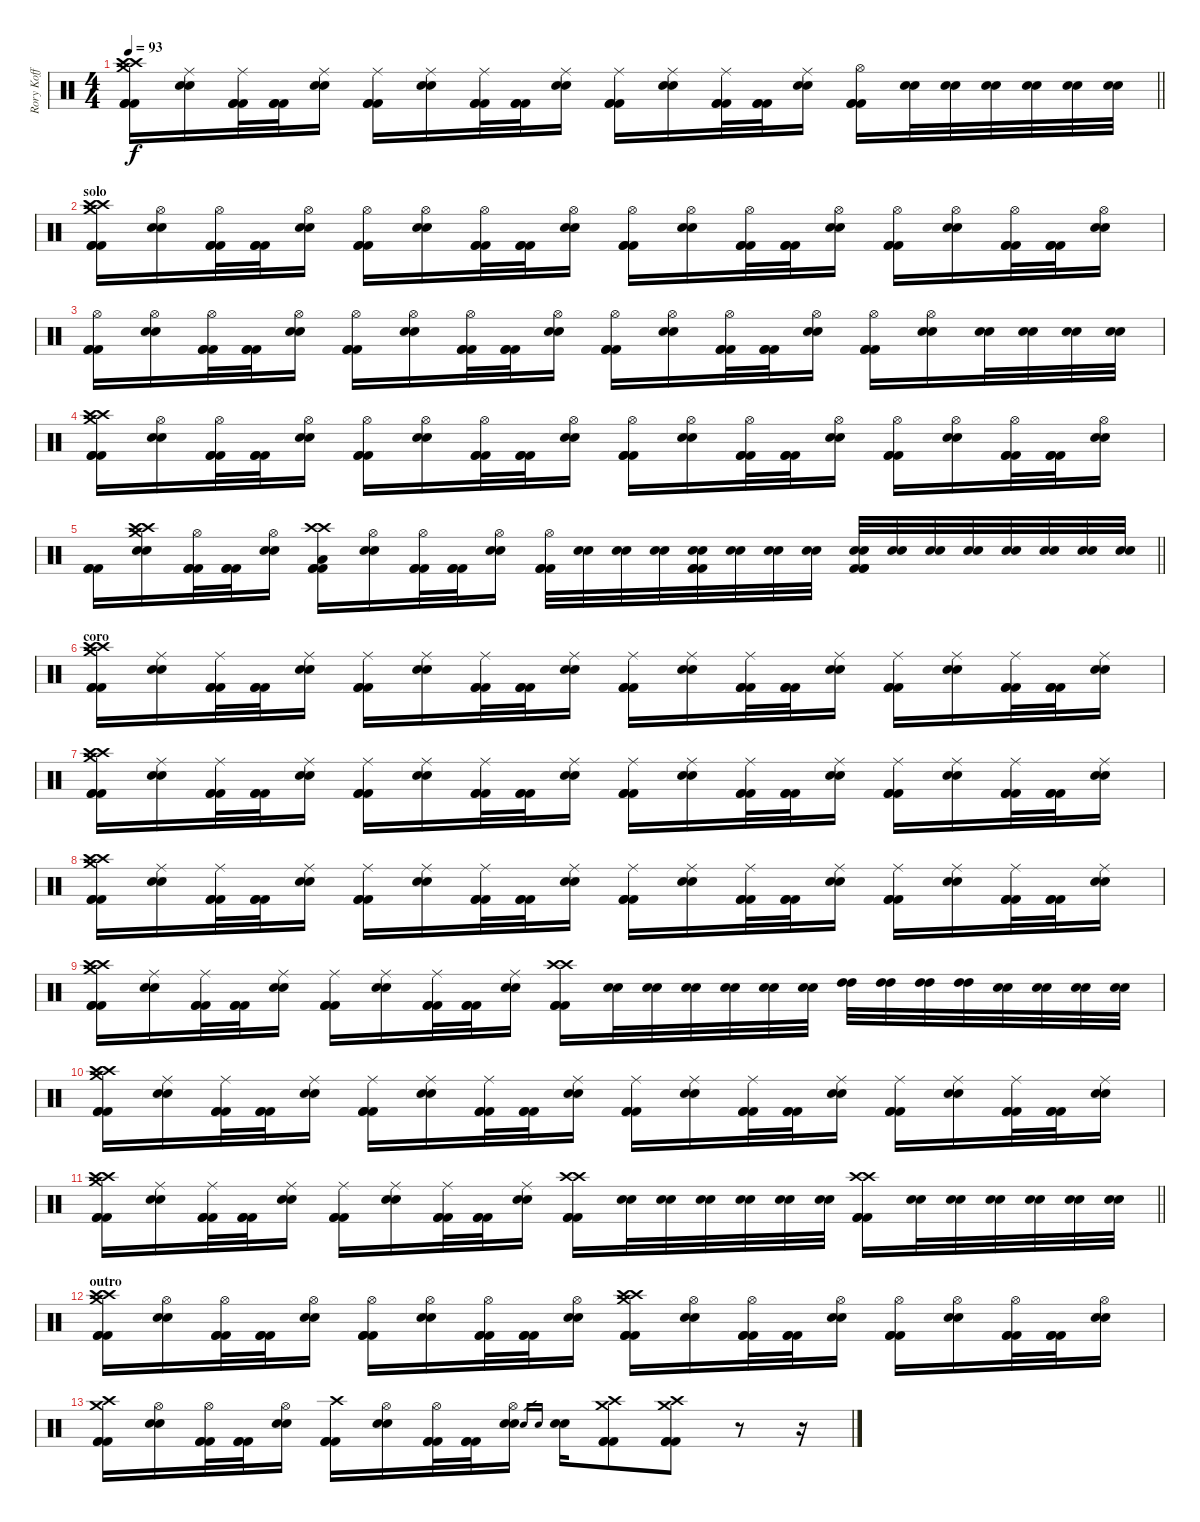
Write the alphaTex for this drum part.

\track ("Rory Koff" "Rory Koff") {instrument percussion}
\staff {score}
\articulation defaults
\ts (4 4)
\tempo 93
\clef neutral
\barLineRight lightlight
\ks c
("Crash high (hit)" "Crash medium (hit)" "Crash high (hit)" "Kick (hit) 2" "Kick (hit) 2" "Kick (hit) 2").16{dy f} ("Ride (middle)" "Electric Snare (hit)" "Electric Snare (hit)").16 ("Ride (middle)" "Kick (hit) 2" "Kick (hit) 2" "Kick (hit) 2").32 ("Kick (hit) 2" "Kick (hit) 2" "Kick (hit) 2").32 ("Ride (middle)" "Electric Snare (hit)" "Electric Snare (hit)").16 ("Ride (middle)" "Kick (hit) 2" "Kick (hit) 2" "Kick (hit) 2").16 ("Ride (middle)" "Electric Snare (hit)" "Electric Snare (hit)").16 ("Ride (middle)" "Kick (hit) 2" "Kick (hit) 2" "Kick (hit) 2").32 ("Kick (hit) 2" "Kick (hit) 2" "Kick (hit) 2").32 ("Ride (middle)" "Electric Snare (hit)" "Electric Snare (hit)").16 ("Ride (middle)" "Kick (hit) 2" "Kick (hit) 2" "Kick (hit) 2").16 ("Ride (middle)" "Electric Snare (hit)" "Electric Snare (hit)").16 ("Ride (middle)" "Kick (hit) 2" "Kick (hit) 2" "Kick (hit) 2").32 ("Kick (hit) 2" "Kick (hit) 2" "Kick (hit) 2").32 ("Ride (middle)" "Electric Snare (hit)" "Electric Snare (hit)").16 ("Hi-Hat (open)" "Kick (hit) 2" "Kick (hit) 2" "Kick (hit) 2").16 ("Electric Snare (hit)" "Electric Snare (hit)").32 ("Electric Snare (hit)" "Electric Snare (hit)").32 ("Electric Snare (hit)" "Electric Snare (hit)").32 ("Electric Snare (hit)" "Electric Snare (hit)").32 ("Electric Snare (hit)" "Electric Snare (hit)").32 ("Electric Snare (hit)" "Electric Snare (hit)").32 |
\section ("" "solo")
("Crash high (hit)" "Crash medium (hit)" "Crash high (hit)" "Kick (hit) 2" "Kick (hit) 2" "Kick (hit) 2").16 ("Hi-Hat (open)" "Electric Snare (hit)" "Electric Snare (hit)").16 ("Hi-Hat (open)" "Kick (hit) 2" "Kick (hit) 2" "Kick (hit) 2").32 ("Kick (hit) 2" "Kick (hit) 2" "Kick (hit) 2").32 ("Hi-Hat (open)" "Electric Snare (hit)" "Electric Snare (hit)").16 ("Hi-Hat (open)" "Kick (hit) 2" "Kick (hit) 2" "Kick (hit) 2").16 ("Hi-Hat (open)" "Electric Snare (hit)" "Electric Snare (hit)").16 ("Hi-Hat (open)" "Kick (hit) 2" "Kick (hit) 2" "Kick (hit) 2").32 ("Kick (hit) 2" "Kick (hit) 2" "Kick (hit) 2").32 ("Hi-Hat (open)" "Electric Snare (hit)" "Electric Snare (hit)").16 ("Hi-Hat (open)" "Kick (hit) 2" "Kick (hit) 2" "Kick (hit) 2").16 ("Hi-Hat (open)" "Electric Snare (hit)" "Electric Snare (hit)").16 ("Hi-Hat (open)" "Kick (hit) 2" "Kick (hit) 2" "Kick (hit) 2").32 ("Kick (hit) 2" "Kick (hit) 2" "Kick (hit) 2").32 ("Hi-Hat (open)" "Electric Snare (hit)" "Electric Snare (hit)").16 ("Hi-Hat (open)" "Kick (hit) 2" "Kick (hit) 2" "Kick (hit) 2").16 ("Hi-Hat (open)" "Electric Snare (hit)" "Electric Snare (hit)").16 ("Hi-Hat (open)" "Kick (hit) 2" "Kick (hit) 2" "Kick (hit) 2").32 ("Kick (hit) 2" "Kick (hit) 2" "Kick (hit) 2").32 ("Hi-Hat (open)" "Electric Snare (hit)" "Electric Snare (hit)").16 |
("Hi-Hat (open)" "Kick (hit) 2" "Kick (hit) 2" "Kick (hit) 2").16 ("Hi-Hat (open)" "Electric Snare (hit)" "Electric Snare (hit)").16 ("Hi-Hat (open)" "Kick (hit) 2" "Kick (hit) 2" "Kick (hit) 2").32 ("Kick (hit) 2" "Kick (hit) 2" "Kick (hit) 2").32 ("Hi-Hat (open)" "Electric Snare (hit)" "Electric Snare (hit)").16 ("Hi-Hat (open)" "Kick (hit) 2" "Kick (hit) 2" "Kick (hit) 2").16 ("Hi-Hat (open)" "Electric Snare (hit)" "Electric Snare (hit)").16 ("Hi-Hat (open)" "Kick (hit) 2" "Kick (hit) 2" "Kick (hit) 2").32 ("Kick (hit) 2" "Kick (hit) 2" "Kick (hit) 2").32 ("Hi-Hat (open)" "Electric Snare (hit)" "Electric Snare (hit)").16 ("Hi-Hat (open)" "Kick (hit) 2" "Kick (hit) 2" "Kick (hit) 2").16 ("Hi-Hat (open)" "Electric Snare (hit)" "Electric Snare (hit)").16 ("Hi-Hat (open)" "Kick (hit) 2" "Kick (hit) 2" "Kick (hit) 2").32 ("Kick (hit) 2" "Kick (hit) 2" "Kick (hit) 2").32 ("Hi-Hat (open)" "Electric Snare (hit)" "Electric Snare (hit)").16 ("Hi-Hat (open)" "Kick (hit) 2" "Kick (hit) 2" "Kick (hit) 2").16 ("Hi-Hat (open)" "Electric Snare (hit)" "Electric Snare (hit)").16 ("Electric Snare (hit)" "Electric Snare (hit)").32 ("Electric Snare (hit)" "Electric Snare (hit)").32 ("Electric Snare (hit)" "Electric Snare (hit)").32 ("Electric Snare (hit)" "Electric Snare (hit)").32 |
("Crash high (hit)" "Crash medium (hit)" "Crash high (hit)" "Kick (hit) 2" "Kick (hit) 2" "Kick (hit) 2").16 ("Hi-Hat (open)" "Electric Snare (hit)" "Electric Snare (hit)").16 ("Hi-Hat (open)" "Kick (hit) 2" "Kick (hit) 2" "Kick (hit) 2").32 ("Kick (hit) 2" "Kick (hit) 2" "Kick (hit) 2").32 ("Hi-Hat (open)" "Electric Snare (hit)" "Electric Snare (hit)").16 ("Hi-Hat (open)" "Kick (hit) 2" "Kick (hit) 2" "Kick (hit) 2").16 ("Hi-Hat (open)" "Electric Snare (hit)" "Electric Snare (hit)").16 ("Hi-Hat (open)" "Kick (hit) 2" "Kick (hit) 2" "Kick (hit) 2").32 ("Kick (hit) 2" "Kick (hit) 2" "Kick (hit) 2").32 ("Hi-Hat (open)" "Electric Snare (hit)" "Electric Snare (hit)").16 ("Hi-Hat (open)" "Kick (hit) 2" "Kick (hit) 2" "Kick (hit) 2").16 ("Hi-Hat (open)" "Electric Snare (hit)" "Electric Snare (hit)").16 ("Hi-Hat (open)" "Kick (hit) 2" "Kick (hit) 2" "Kick (hit) 2").32 ("Kick (hit) 2" "Kick (hit) 2" "Kick (hit) 2").32 ("Hi-Hat (open)" "Electric Snare (hit)" "Electric Snare (hit)").16 ("Hi-Hat (open)" "Kick (hit) 2" "Kick (hit) 2" "Kick (hit) 2").16 ("Hi-Hat (open)" "Electric Snare (hit)" "Electric Snare (hit)").16 ("Hi-Hat (open)" "Kick (hit) 2" "Kick (hit) 2" "Kick (hit) 2").32 ("Kick (hit) 2" "Kick (hit) 2" "Kick (hit) 2").32 ("Hi-Hat (open)" "Electric Snare (hit)" "Electric Snare (hit)").16 |
\barLineRight lightlight
("Kick (hit) 2" "Kick (hit) 2" "Kick (hit) 2").16 ("Crash medium (hit)" "Crash high (hit)" "Crash high (hit)" "Electric Snare (hit)" "Electric Snare (hit)").16 ("Hi-Hat (open)" "Kick (hit) 2" "Kick (hit) 2" "Kick (hit) 2").32 ("Kick (hit) 2" "Kick (hit) 2" "Kick (hit) 2").32 ("Hi-Hat (open)" "Electric Snare (hit)" "Electric Snare (hit)").16 ("Crash high (hit)" "Low Tom (hit)" "Crash high (hit)" "Kick (hit) 2" "Kick (hit) 2" "Kick (hit) 2").16 ("Hi-Hat (open)" "Electric Snare (hit)" "Electric Snare (hit)").16 ("Hi-Hat (open)" "Kick (hit) 2" "Kick (hit) 2" "Kick (hit) 2").32 ("Kick (hit) 2" "Kick (hit) 2" "Kick (hit) 2").32 ("Hi-Hat (open)" "Electric Snare (hit)" "Electric Snare (hit)").16 ("Hi-Hat (open)" "Kick (hit) 2" "Kick (hit) 2" "Kick (hit) 2").32 ("Electric Snare (hit)" "Electric Snare (hit)").32 ("Electric Snare (hit)" "Electric Snare (hit)").32 ("Electric Snare (hit)" "Electric Snare (hit)").32 ("Electric Snare (hit)" "Electric Snare (hit)" "Kick (hit) 2" "Kick (hit) 2" "Kick (hit) 2").32 ("Electric Snare (hit)" "Electric Snare (hit)").32 ("Electric Snare (hit)" "Electric Snare (hit)").32 ("Electric Snare (hit)" "Electric Snare (hit)").32 ("Electric Snare (hit)" "Electric Snare (hit)" "Kick (hit) 2" "Kick (hit) 2" "Kick (hit) 2").32 ("Electric Snare (hit)" "Electric Snare (hit)").32 ("Electric Snare (hit)" "Electric Snare (hit)").32 ("Electric Snare (hit)" "Electric Snare (hit)").32 ("Electric Snare (hit)" "Electric Snare (hit)").32 ("Electric Snare (hit)" "Electric Snare (hit)").32 ("Electric Snare (hit)" "Electric Snare (hit)").32 ("Electric Snare (hit)" "Electric Snare (hit)").32 |
\section ("" "coro")
("Crash high (hit)" "Crash medium (hit)" "Crash high (hit)" "Kick (hit) 2" "Kick (hit) 2" "Kick (hit) 2").16 ("Ride (middle)" "Electric Snare (hit)" "Electric Snare (hit)").16 ("Ride (middle)" "Kick (hit) 2" "Kick (hit) 2" "Kick (hit) 2").32 ("Kick (hit) 2" "Kick (hit) 2" "Kick (hit) 2").32 ("Ride (middle)" "Electric Snare (hit)" "Electric Snare (hit)").16 ("Ride (middle)" "Kick (hit) 2" "Kick (hit) 2" "Kick (hit) 2").16 ("Ride (middle)" "Electric Snare (hit)" "Electric Snare (hit)").16 ("Ride (middle)" "Kick (hit) 2" "Kick (hit) 2" "Kick (hit) 2").32 ("Kick (hit) 2" "Kick (hit) 2" "Kick (hit) 2").32 ("Ride (middle)" "Electric Snare (hit)" "Electric Snare (hit)").16 ("Ride (middle)" "Kick (hit) 2" "Kick (hit) 2" "Kick (hit) 2").16 ("Ride (middle)" "Electric Snare (hit)" "Electric Snare (hit)").16 ("Ride (middle)" "Kick (hit) 2" "Kick (hit) 2" "Kick (hit) 2").32 ("Kick (hit) 2" "Kick (hit) 2" "Kick (hit) 2").32 ("Ride (middle)" "Electric Snare (hit)" "Electric Snare (hit)").16 ("Ride (middle)" "Kick (hit) 2" "Kick (hit) 2" "Kick (hit) 2").16 ("Ride (middle)" "Electric Snare (hit)" "Electric Snare (hit)").16 ("Ride (middle)" "Kick (hit) 2" "Kick (hit) 2" "Kick (hit) 2").32 ("Kick (hit) 2" "Kick (hit) 2" "Kick (hit) 2").32 ("Ride (middle)" "Electric Snare (hit)" "Electric Snare (hit)").16 |
("Crash high (hit)" "Crash medium (hit)" "Crash high (hit)" "Kick (hit) 2" "Kick (hit) 2" "Kick (hit) 2").16 ("Ride (middle)" "Electric Snare (hit)" "Electric Snare (hit)").16 ("Ride (middle)" "Kick (hit) 2" "Kick (hit) 2" "Kick (hit) 2").32 ("Kick (hit) 2" "Kick (hit) 2" "Kick (hit) 2").32 ("Ride (middle)" "Electric Snare (hit)" "Electric Snare (hit)").16 ("Ride (middle)" "Kick (hit) 2" "Kick (hit) 2" "Kick (hit) 2").16 ("Ride (middle)" "Electric Snare (hit)" "Electric Snare (hit)").16 ("Ride (middle)" "Kick (hit) 2" "Kick (hit) 2" "Kick (hit) 2").32 ("Kick (hit) 2" "Kick (hit) 2" "Kick (hit) 2").32 ("Ride (middle)" "Electric Snare (hit)" "Electric Snare (hit)").16 ("Ride (middle)" "Kick (hit) 2" "Kick (hit) 2" "Kick (hit) 2").16 ("Ride (middle)" "Electric Snare (hit)" "Electric Snare (hit)").16 ("Ride (middle)" "Kick (hit) 2" "Kick (hit) 2" "Kick (hit) 2").32 ("Kick (hit) 2" "Kick (hit) 2" "Kick (hit) 2").32 ("Ride (middle)" "Electric Snare (hit)" "Electric Snare (hit)").16 ("Ride (middle)" "Kick (hit) 2" "Kick (hit) 2" "Kick (hit) 2").16 ("Ride (middle)" "Electric Snare (hit)" "Electric Snare (hit)").16 ("Ride (middle)" "Kick (hit) 2" "Kick (hit) 2" "Kick (hit) 2").32 ("Kick (hit) 2" "Kick (hit) 2" "Kick (hit) 2").32 ("Ride (middle)" "Electric Snare (hit)" "Electric Snare (hit)").16 |
("Crash high (hit)" "Crash medium (hit)" "Crash high (hit)" "Kick (hit) 2" "Kick (hit) 2" "Kick (hit) 2").16 ("Ride (middle)" "Electric Snare (hit)" "Electric Snare (hit)").16 ("Ride (middle)" "Kick (hit) 2" "Kick (hit) 2" "Kick (hit) 2").32 ("Kick (hit) 2" "Kick (hit) 2" "Kick (hit) 2").32 ("Ride (middle)" "Electric Snare (hit)" "Electric Snare (hit)").16 ("Ride (middle)" "Kick (hit) 2" "Kick (hit) 2" "Kick (hit) 2").16 ("Ride (middle)" "Electric Snare (hit)" "Electric Snare (hit)").16 ("Ride (middle)" "Kick (hit) 2" "Kick (hit) 2" "Kick (hit) 2").32 ("Kick (hit) 2" "Kick (hit) 2" "Kick (hit) 2").32 ("Ride (middle)" "Electric Snare (hit)" "Electric Snare (hit)").16 ("Ride (middle)" "Kick (hit) 2" "Kick (hit) 2" "Kick (hit) 2").16 ("Ride (middle)" "Electric Snare (hit)" "Electric Snare (hit)").16 ("Ride (middle)" "Kick (hit) 2" "Kick (hit) 2" "Kick (hit) 2").32 ("Kick (hit) 2" "Kick (hit) 2" "Kick (hit) 2").32 ("Ride (middle)" "Electric Snare (hit)" "Electric Snare (hit)").16 ("Ride (middle)" "Kick (hit) 2" "Kick (hit) 2" "Kick (hit) 2").16 ("Ride (middle)" "Electric Snare (hit)" "Electric Snare (hit)").16 ("Ride (middle)" "Kick (hit) 2" "Kick (hit) 2" "Kick (hit) 2").32 ("Kick (hit) 2" "Kick (hit) 2" "Kick (hit) 2").32 ("Ride (middle)" "Electric Snare (hit)" "Electric Snare (hit)").16 |
("Crash high (hit)" "Crash medium (hit)" "Crash high (hit)" "Kick (hit) 2" "Kick (hit) 2" "Kick (hit) 2").16 ("Ride (middle)" "Electric Snare (hit)" "Electric Snare (hit)").16 ("Ride (middle)" "Kick (hit) 2" "Kick (hit) 2" "Kick (hit) 2").32 ("Kick (hit) 2" "Kick (hit) 2" "Kick (hit) 2").32 ("Ride (middle)" "Electric Snare (hit)" "Electric Snare (hit)").16 ("Ride (middle)" "Kick (hit) 2" "Kick (hit) 2" "Kick (hit) 2").16 ("Ride (middle)" "Electric Snare (hit)" "Electric Snare (hit)").16 ("Ride (middle)" "Kick (hit) 2" "Kick (hit) 2" "Kick (hit) 2").32 ("Kick (hit) 2" "Kick (hit) 2" "Kick (hit) 2").32 ("Ride (middle)" "Electric Snare (hit)" "Electric Snare (hit)").16 ("Crash high (hit)" "Crash high (hit)" "Kick (hit) 2" "Kick (hit) 2" "Kick (hit) 2").16 ("Electric Snare (hit)" "Electric Snare (hit)").32 ("Electric Snare (hit)" "Electric Snare (hit)").32 ("Electric Snare (hit)" "Electric Snare (hit)").32 ("Electric Snare (hit)" "Electric Snare (hit)").32 ("Electric Snare (hit)" "Electric Snare (hit)").32 ("Electric Snare (hit)" "Electric Snare (hit)").32 ("High Tom (hit)" "High Tom (hit)").32 ("High Tom (hit)" "High Tom (hit)").32 ("High Tom (hit)" "High Tom (hit)").32 ("High Tom (hit)" "High Tom (hit)").32 ("Electric Snare (hit)" "Electric Snare (hit)").32 ("Electric Snare (hit)" "Electric Snare (hit)").32 ("Electric Snare (hit)" "Electric Snare (hit)").32 ("Electric Snare (hit)" "Electric Snare (hit)").32 |
("Crash high (hit)" "Crash medium (hit)" "Crash high (hit)" "Kick (hit) 2" "Kick (hit) 2" "Kick (hit) 2").16 ("Ride (middle)" "Electric Snare (hit)" "Electric Snare (hit)").16 ("Ride (middle)" "Kick (hit) 2" "Kick (hit) 2" "Kick (hit) 2").32 ("Kick (hit) 2" "Kick (hit) 2" "Kick (hit) 2").32 ("Ride (middle)" "Electric Snare (hit)" "Electric Snare (hit)").16 ("Ride (middle)" "Kick (hit) 2" "Kick (hit) 2" "Kick (hit) 2").16 ("Ride (middle)" "Electric Snare (hit)" "Electric Snare (hit)").16 ("Ride (middle)" "Kick (hit) 2" "Kick (hit) 2" "Kick (hit) 2").32 ("Kick (hit) 2" "Kick (hit) 2" "Kick (hit) 2").32 ("Ride (middle)" "Electric Snare (hit)" "Electric Snare (hit)").16 ("Ride (middle)" "Kick (hit) 2" "Kick (hit) 2" "Kick (hit) 2").16 ("Ride (middle)" "Electric Snare (hit)" "Electric Snare (hit)").16 ("Ride (middle)" "Kick (hit) 2" "Kick (hit) 2" "Kick (hit) 2").32 ("Kick (hit) 2" "Kick (hit) 2" "Kick (hit) 2").32 ("Ride (middle)" "Electric Snare (hit)" "Electric Snare (hit)").16 ("Ride (middle)" "Kick (hit) 2" "Kick (hit) 2" "Kick (hit) 2").16 ("Ride (middle)" "Electric Snare (hit)" "Electric Snare (hit)").16 ("Ride (middle)" "Kick (hit) 2" "Kick (hit) 2" "Kick (hit) 2").32 ("Kick (hit) 2" "Kick (hit) 2" "Kick (hit) 2").32 ("Ride (middle)" "Electric Snare (hit)" "Electric Snare (hit)").16 |
\barLineRight lightlight
("Crash high (hit)" "Crash medium (hit)" "Crash high (hit)" "Kick (hit) 2" "Kick (hit) 2" "Kick (hit) 2").16 ("Ride (middle)" "Electric Snare (hit)" "Electric Snare (hit)").16 ("Ride (middle)" "Kick (hit) 2" "Kick (hit) 2" "Kick (hit) 2").32 ("Kick (hit) 2" "Kick (hit) 2" "Kick (hit) 2").32 ("Ride (middle)" "Electric Snare (hit)" "Electric Snare (hit)").16 ("Ride (middle)" "Kick (hit) 2" "Kick (hit) 2" "Kick (hit) 2").16 ("Ride (middle)" "Electric Snare (hit)" "Electric Snare (hit)").16 ("Ride (middle)" "Kick (hit) 2" "Kick (hit) 2" "Kick (hit) 2").32 ("Kick (hit) 2" "Kick (hit) 2" "Kick (hit) 2").32 ("Ride (middle)" "Electric Snare (hit)" "Electric Snare (hit)").16 ("Crash high (hit)" "Crash high (hit)" "Kick (hit) 2" "Kick (hit) 2" "Kick (hit) 2").16 ("Electric Snare (hit)" "Electric Snare (hit)").32 ("Electric Snare (hit)" "Electric Snare (hit)").32 ("Electric Snare (hit)" "Electric Snare (hit)").32 ("Electric Snare (hit)" "Electric Snare (hit)").32 ("Electric Snare (hit)" "Electric Snare (hit)").32 ("Electric Snare (hit)" "Electric Snare (hit)").32 ("Crash high (hit)" "Crash high (hit)" "Kick (hit) 2" "Kick (hit) 2" "Kick (hit) 2").16 ("Electric Snare (hit)" "Electric Snare (hit)").32 ("Electric Snare (hit)" "Electric Snare (hit)").32 ("Electric Snare (hit)" "Electric Snare (hit)").32 ("Electric Snare (hit)" "Electric Snare (hit)").32 ("Electric Snare (hit)" "Electric Snare (hit)").32 ("Electric Snare (hit)" "Electric Snare (hit)").32 |
\section ("" "outro")
("Crash high (hit)" "Crash medium (hit)" "Crash high (hit)" "Kick (hit) 2" "Kick (hit) 2" "Kick (hit) 2").16 ("Hi-Hat (open)" "Electric Snare (hit)" "Electric Snare (hit)").16 ("Hi-Hat (open)" "Kick (hit) 2" "Kick (hit) 2" "Kick (hit) 2").32 ("Kick (hit) 2" "Kick (hit) 2" "Kick (hit) 2").32 ("Hi-Hat (open)" "Electric Snare (hit)" "Electric Snare (hit)").16 ("Hi-Hat (open)" "Kick (hit) 2" "Kick (hit) 2" "Kick (hit) 2").16 ("Hi-Hat (open)" "Electric Snare (hit)" "Electric Snare (hit)").16 ("Hi-Hat (open)" "Kick (hit) 2" "Kick (hit) 2" "Kick (hit) 2").32 ("Kick (hit) 2" "Kick (hit) 2" "Kick (hit) 2").32 ("Hi-Hat (open)" "Electric Snare (hit)" "Electric Snare (hit)").16 ("Crash high (hit)" "Crash medium (hit)" "Crash high (hit)" "Kick (hit) 2" "Kick (hit) 2" "Kick (hit) 2").16 ("Hi-Hat (open)" "Electric Snare (hit)" "Electric Snare (hit)").16 ("Hi-Hat (open)" "Kick (hit) 2" "Kick (hit) 2" "Kick (hit) 2").32 ("Kick (hit) 2" "Kick (hit) 2" "Kick (hit) 2").32 ("Hi-Hat (open)" "Electric Snare (hit)" "Electric Snare (hit)").16 ("Hi-Hat (open)" "Kick (hit) 2" "Kick (hit) 2" "Kick (hit) 2").16 ("Hi-Hat (open)" "Electric Snare (hit)" "Electric Snare (hit)").16 ("Hi-Hat (open)" "Kick (hit) 2" "Kick (hit) 2" "Kick (hit) 2").32 ("Kick (hit) 2" "Kick (hit) 2" "Kick (hit) 2").32 ("Hi-Hat (open)" "Electric Snare (hit)" "Electric Snare (hit)").16 |
("Crash medium (hit)" "Crash high (hit)" "Kick (hit) 2" "Kick (hit) 2" "Kick (hit) 2").16 ("Hi-Hat (open)" "Electric Snare (hit)" "Electric Snare (hit)").16 ("Hi-Hat (open)" "Kick (hit) 2" "Kick (hit) 2" "Kick (hit) 2").32 ("Kick (hit) 2" "Kick (hit) 2" "Kick (hit) 2").32 ("Hi-Hat (open)" "Electric Snare (hit)" "Electric Snare (hit)").16 ("Crash high (hit)" "Kick (hit) 2" "Kick (hit) 2" "Kick (hit) 2").16 ("Hi-Hat (open)" "Electric Snare (hit)" "Electric Snare (hit)").16 ("Hi-Hat (open)" "Kick (hit) 2" "Kick (hit) 2" "Kick (hit) 2").32 ("Kick (hit) 2" "Kick (hit) 2" "Kick (hit) 2").32 ("Hi-Hat (open)" "Electric Snare (hit)" "Electric Snare (hit)").16 "Electric Snare (hit)".16{gr} "Electric Snare (hit)".16{gr} ("Electric Snare (hit)" "Electric Snare (hit)").16 ("Crash medium (hit)" "Crash high (hit)" "Kick (hit) 2" "Kick (hit) 2" "Kick (hit) 2").8 ("Crash medium (hit)" "Crash high (hit)" "Kick (hit) 2" "Kick (hit) 2" "Kick (hit) 2").8 r.8 r.16
